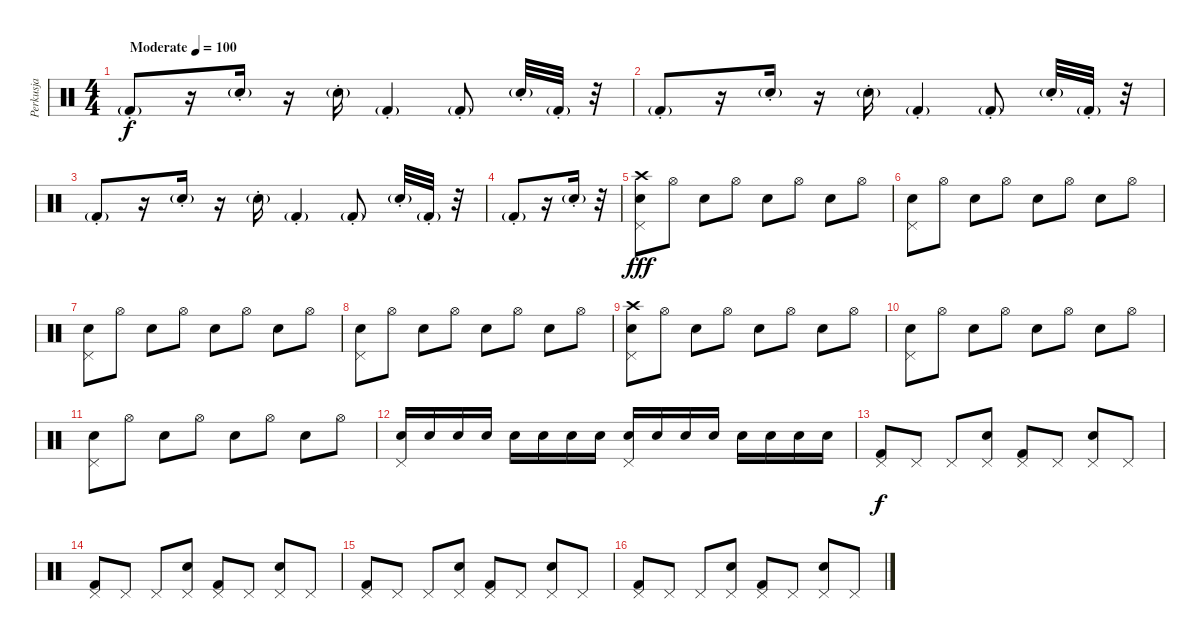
\track ("Perkusja" "Perkusja") {instrument percussion}
\staff {score}
\articulation defaults
\ts (4 4)
\tempo (100 "Moderate")
\clef neutral
\ks c "Kick (hit) 2"{g st}.8{dy f}
r.16 "Snare (hit) 2"{g st}.16 r.16 "Snare (hit) 2"{g st}.16 "Kick (hit) 2"{g st}.4 "Kick (hit) 2"{g st}.8 "Snare (hit) 2"{g st}.32 "Kick (hit) 2"{g st}.32 r.32 |
"Kick (hit) 2"{g st}.8 r.16 "Snare (hit) 2"{g st}.16 r.16 "Snare (hit) 2"{g st}.16 "Kick (hit) 2"{g st}.4 "Kick (hit) 2"{g st}.8 "Snare (hit) 2"{g st}.32 "Kick (hit) 2"{g st}.32 r.32 |
"Kick (hit) 2"{g st}.8 r.16 "Snare (hit) 2"{g st}.16 r.16 "Snare (hit) 2"{g st}.16 "Kick (hit) 2"{g st}.4 "Kick (hit) 2"{g st}.8 "Snare (hit) 2"{g st}.32 "Kick (hit) 2"{g st}.32 r.32 |
"Kick (hit) 2"{g st}.8 r.16 "Snare (hit) 2"{g st}.16 r.32 |
("Electric Snare (hit)" "Pedal Hi-Hat (hit)" "Crash high (hit)").8{dy fff} "Hi-Hat (open)".8 "Electric Snare (hit)".8 "Hi-Hat (open)".8 "Electric Snare (hit)".8 "Hi-Hat (open)".8 "Electric Snare (hit)".8 "Hi-Hat (open)".8 |
("Electric Snare (hit)" "Pedal Hi-Hat (hit)").8 "Hi-Hat (open)".8 "Electric Snare (hit)".8 "Hi-Hat (open)".8 "Electric Snare (hit)".8 "Hi-Hat (open)".8 "Electric Snare (hit)".8 "Hi-Hat (open)".8 |
("Electric Snare (hit)" "Pedal Hi-Hat (hit)").8 "Hi-Hat (open)".8 "Electric Snare (hit)".8 "Hi-Hat (open)".8 "Electric Snare (hit)".8 "Hi-Hat (open)".8 "Electric Snare (hit)".8 "Hi-Hat (open)".8 |
("Electric Snare (hit)" "Pedal Hi-Hat (hit)").8 "Hi-Hat (open)".8 "Electric Snare (hit)".8 "Hi-Hat (open)".8 "Electric Snare (hit)".8 "Hi-Hat (open)".8 "Electric Snare (hit)".8 "Hi-Hat (open)".8 |
("Electric Snare (hit)" "Pedal Hi-Hat (hit)" "Crash high (hit)").8 "Hi-Hat (open)".8 "Electric Snare (hit)".8 "Hi-Hat (open)".8 "Electric Snare (hit)".8 "Hi-Hat (open)".8 "Electric Snare (hit)".8 "Hi-Hat (open)".8 |
("Electric Snare (hit)" "Pedal Hi-Hat (hit)").8 "Hi-Hat (open)".8 "Electric Snare (hit)".8 "Hi-Hat (open)".8 "Electric Snare (hit)".8 "Hi-Hat (open)".8 "Electric Snare (hit)".8 "Hi-Hat (open)".8 |
("Electric Snare (hit)" "Pedal Hi-Hat (hit)").8 "Hi-Hat (open)".8 "Electric Snare (hit)".8 "Hi-Hat (open)".8 "Electric Snare (hit)".8 "Hi-Hat (open)".8 "Electric Snare (hit)".8 "Hi-Hat (open)".8 |
("Electric Snare (hit)" "Pedal Hi-Hat (hit)").16 "Snare (hit) 2".16 "Snare (hit) 2".16 "Electric Snare (hit)".16 "Electric Snare (hit)".16 "Snare (hit) 2".16 "Snare (hit) 2".16 "Electric Snare (hit)".16 ("Electric Snare (hit)" "Pedal Hi-Hat (hit)").16 "Snare (hit) 2".16 "Snare (hit) 2".16 "Electric Snare (hit)".16 "Electric Snare (hit)".16 "Snare (hit) 2".16 "Snare (hit) 2".16 "Electric Snare (hit)".16 |
("Pedal Hi-Hat (hit)" "Kick (hit) 2").8{dy f} "Pedal Hi-Hat (hit)".8 "Pedal Hi-Hat (hit)".8 ("Pedal Hi-Hat (hit)" "Snare (hit) 2").8 ("Pedal Hi-Hat (hit)" "Kick (hit) 2").8 "Pedal Hi-Hat (hit)".8 ("Pedal Hi-Hat (hit)" "Snare (hit) 2").8 "Pedal Hi-Hat (hit)".8 |
("Pedal Hi-Hat (hit)" "Kick (hit) 2").8 "Pedal Hi-Hat (hit)".8 "Pedal Hi-Hat (hit)".8 ("Pedal Hi-Hat (hit)" "Snare (hit) 2").8 ("Pedal Hi-Hat (hit)" "Kick (hit) 2").8 "Pedal Hi-Hat (hit)".8 ("Pedal Hi-Hat (hit)" "Snare (hit) 2").8 "Pedal Hi-Hat (hit)".8 |
("Pedal Hi-Hat (hit)" "Kick (hit) 2").8 "Pedal Hi-Hat (hit)".8 "Pedal Hi-Hat (hit)".8 ("Pedal Hi-Hat (hit)" "Snare (hit) 2").8 ("Pedal Hi-Hat (hit)" "Kick (hit) 2").8 "Pedal Hi-Hat (hit)".8 ("Pedal Hi-Hat (hit)" "Snare (hit) 2").8 "Pedal Hi-Hat (hit)".8 |
("Pedal Hi-Hat (hit)" "Kick (hit) 2").8 "Pedal Hi-Hat (hit)".8 "Pedal Hi-Hat (hit)".8 ("Pedal Hi-Hat (hit)" "Snare (hit) 2").8 ("Pedal Hi-Hat (hit)" "Kick (hit) 2").8 "Pedal Hi-Hat (hit)".8 ("Pedal Hi-Hat (hit)" "Snare (hit) 2").8 "Pedal Hi-Hat (hit)".8
